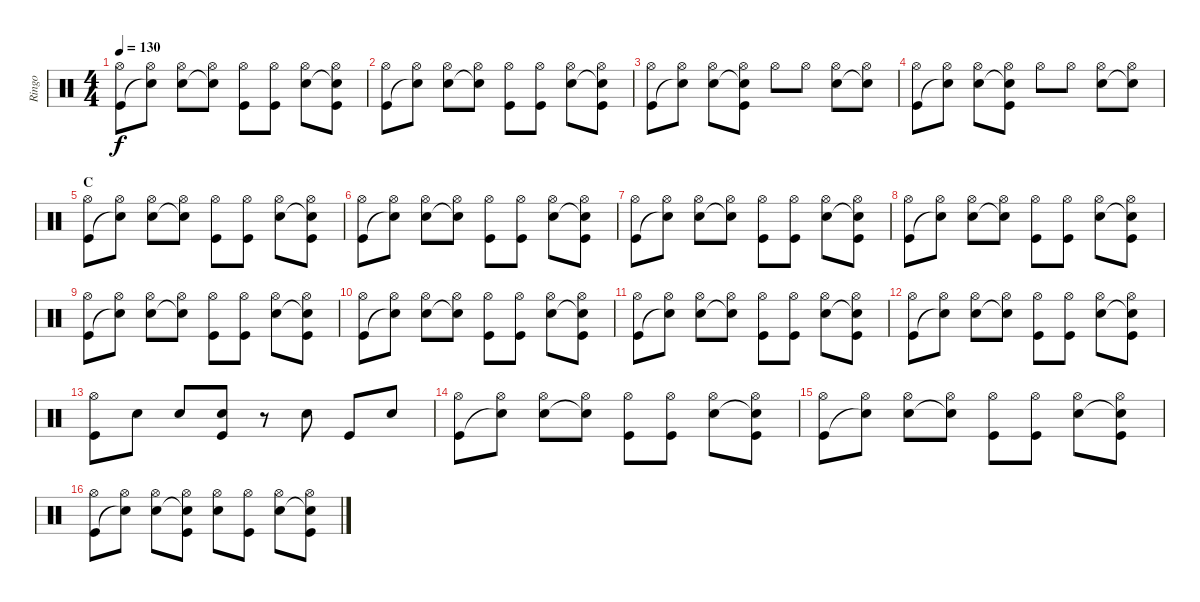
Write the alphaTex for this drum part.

\track ("Ringo" "Ringo") {instrument percussion}
\staff {score}
\articulation defaults
\ts (4 4)
\tempo 130
\clef neutral
\ks c
("Hi-Hat (open)" "Kick (hit)").8{dy f} ("Hi-Hat (open)" "Snare (hit)"{t}).8 ("Hi-Hat (open)" "Snare (hit) 2").8 ("Hi-Hat (open)" "Snare (hit)"{t}).8 ("Hi-Hat (open)" "Kick (hit)").8 ("Hi-Hat (open)" "Kick (hit)").8 ("Hi-Hat (open)" "Snare (hit) 2").8 ("Hi-Hat (open)" "Snare (hit)"{t} "Kick (hit)").8 |
("Hi-Hat (open)" "Kick (hit)").8 ("Hi-Hat (open)" "Snare (hit)"{t}).8 ("Hi-Hat (open)" "Snare (hit) 2").8 ("Hi-Hat (open)" "Snare (hit)"{t}).8 ("Hi-Hat (open)" "Kick (hit)").8 ("Hi-Hat (open)" "Kick (hit)").8 ("Hi-Hat (open)" "Snare (hit) 2").8 ("Hi-Hat (open)" "Snare (hit)"{t} "Kick (hit)").8 |
("Hi-Hat (open)" "Kick (hit)").8 ("Hi-Hat (open)" "Snare (hit)"{t}).8 ("Hi-Hat (open)" "Snare (hit) 2").8 ("Hi-Hat (open)" "Snare (hit)"{t} "Kick (hit)").8 "Hi-Hat (open)".8 "Hi-Hat (open)".8 ("Hi-Hat (open)" "Snare (hit) 2").8 ("Hi-Hat (open)" "Snare (hit)"{t}).8 |
("Hi-Hat (open)" "Kick (hit)").8 ("Hi-Hat (open)" "Snare (hit)"{t}).8 ("Hi-Hat (open)" "Snare (hit) 2").8 ("Hi-Hat (open)" "Snare (hit)"{t} "Kick (hit)").8 "Hi-Hat (open)".8 "Hi-Hat (open)".8 ("Hi-Hat (open)" "Snare (hit) 2").8 ("Hi-Hat (open)" "Snare (hit)"{t}).8 |
\section ("" "C")
("Hi-Hat (open)" "Kick (hit)").8 ("Hi-Hat (open)" "Snare (hit)"{t}).8 ("Hi-Hat (open)" "Snare (hit) 2").8 ("Hi-Hat (open)" "Snare (hit)"{t}).8 ("Hi-Hat (open)" "Kick (hit)").8 ("Hi-Hat (open)" "Kick (hit)").8 ("Hi-Hat (open)" "Snare (hit) 2").8 ("Hi-Hat (open)" "Snare (hit)"{t} "Kick (hit)").8 |
("Hi-Hat (open)" "Kick (hit)").8 ("Hi-Hat (open)" "Snare (hit)"{t}).8 ("Hi-Hat (open)" "Snare (hit) 2").8 ("Hi-Hat (open)" "Snare (hit)"{t}).8 ("Hi-Hat (open)" "Kick (hit)").8 ("Hi-Hat (open)" "Kick (hit)").8 ("Hi-Hat (open)" "Snare (hit) 2").8 ("Hi-Hat (open)" "Snare (hit)"{t} "Kick (hit)").8 |
("Hi-Hat (open)" "Kick (hit)").8 ("Hi-Hat (open)" "Snare (hit)"{t}).8 ("Hi-Hat (open)" "Snare (hit) 2").8 ("Hi-Hat (open)" "Snare (hit)"{t}).8 ("Hi-Hat (open)" "Kick (hit)").8 ("Hi-Hat (open)" "Kick (hit)").8 ("Hi-Hat (open)" "Snare (hit) 2").8 ("Hi-Hat (open)" "Snare (hit)"{t} "Kick (hit)").8 |
("Hi-Hat (open)" "Kick (hit)").8 ("Hi-Hat (open)" "Snare (hit)"{t}).8 ("Hi-Hat (open)" "Snare (hit) 2").8 ("Hi-Hat (open)" "Snare (hit)"{t}).8 ("Hi-Hat (open)" "Kick (hit)").8 ("Hi-Hat (open)" "Kick (hit)").8 ("Hi-Hat (open)" "Snare (hit) 2").8 ("Hi-Hat (open)" "Snare (hit)"{t} "Kick (hit)").8 |
("Hi-Hat (open)" "Kick (hit)").8 ("Hi-Hat (open)" "Snare (hit)"{t}).8 ("Hi-Hat (open)" "Snare (hit) 2").8 ("Hi-Hat (open)" "Snare (hit)"{t}).8 ("Hi-Hat (open)" "Kick (hit)").8 ("Hi-Hat (open)" "Kick (hit)").8 ("Hi-Hat (open)" "Snare (hit) 2").8 ("Hi-Hat (open)" "Snare (hit)"{t} "Kick (hit)").8 |
("Hi-Hat (open)" "Kick (hit)").8 ("Hi-Hat (open)" "Snare (hit)"{t}).8 ("Hi-Hat (open)" "Snare (hit) 2").8 ("Hi-Hat (open)" "Snare (hit)"{t}).8 ("Hi-Hat (open)" "Kick (hit)").8 ("Hi-Hat (open)" "Kick (hit)").8 ("Hi-Hat (open)" "Snare (hit) 2").8 ("Hi-Hat (open)" "Snare (hit)"{t} "Kick (hit)").8 |
("Hi-Hat (open)" "Kick (hit)").8 ("Hi-Hat (open)" "Snare (hit)"{t}).8 ("Hi-Hat (open)" "Snare (hit) 2").8 ("Hi-Hat (open)" "Snare (hit)"{t}).8 ("Hi-Hat (open)" "Kick (hit)").8 ("Hi-Hat (open)" "Kick (hit)").8 ("Hi-Hat (open)" "Snare (hit) 2").8 ("Hi-Hat (open)" "Snare (hit)"{t} "Kick (hit)").8 |
("Hi-Hat (open)" "Kick (hit)").8 ("Hi-Hat (open)" "Snare (hit)"{t}).8 ("Hi-Hat (open)" "Snare (hit) 2").8 ("Hi-Hat (open)" "Snare (hit)"{t}).8 ("Hi-Hat (open)" "Kick (hit)").8 ("Hi-Hat (open)" "Kick (hit)").8 ("Hi-Hat (open)" "Snare (hit) 2").8 ("Hi-Hat (open)" "Snare (hit)"{t} "Kick (hit)").8 |
("Hi-Hat (open)" "Kick (hit)").8 "Snare (hit) 2".8 "Snare (hit) 2".8 ("Snare (hit) 2" "Kick (hit)").8 r.8 "Snare (hit) 2".8 "Kick (hit)".8 "Snare (hit) 2".8 |
("Hi-Hat (open)" "Kick (hit)").8 ("Hi-Hat (open)" "Snare (hit)"{t}).8 ("Hi-Hat (open)" "Snare (hit) 2").8 ("Hi-Hat (open)" "Snare (hit)"{t}).8 ("Hi-Hat (open)" "Kick (hit)").8 ("Hi-Hat (open)" "Kick (hit)").8 ("Hi-Hat (open)" "Snare (hit) 2").8 ("Hi-Hat (open)" "Snare (hit)"{t} "Kick (hit)").8 |
("Hi-Hat (open)" "Kick (hit)").8 ("Hi-Hat (open)" "Snare (hit)"{t}).8 ("Hi-Hat (open)" "Snare (hit) 2").8 ("Hi-Hat (open)" "Snare (hit)"{t}).8 ("Hi-Hat (open)" "Kick (hit)").8 ("Hi-Hat (open)" "Kick (hit)").8 ("Hi-Hat (open)" "Snare (hit) 2").8 ("Hi-Hat (open)" "Snare (hit)"{t} "Kick (hit)").8 |
("Hi-Hat (open)" "Kick (hit)").8 ("Hi-Hat (open)" "Snare (hit)"{t}).8 ("Hi-Hat (open)" "Snare (hit) 2").8 ("Hi-Hat (open)" "Snare (hit)"{t} "Kick (hit)").8 ("Hi-Hat (open)" "Snare (hit) 2").8 ("Hi-Hat (open)" "Kick (hit)").8 ("Hi-Hat (open)" "Snare (hit) 2").8 ("Hi-Hat (open)" "Snare (hit)"{t} "Kick (hit)").8
